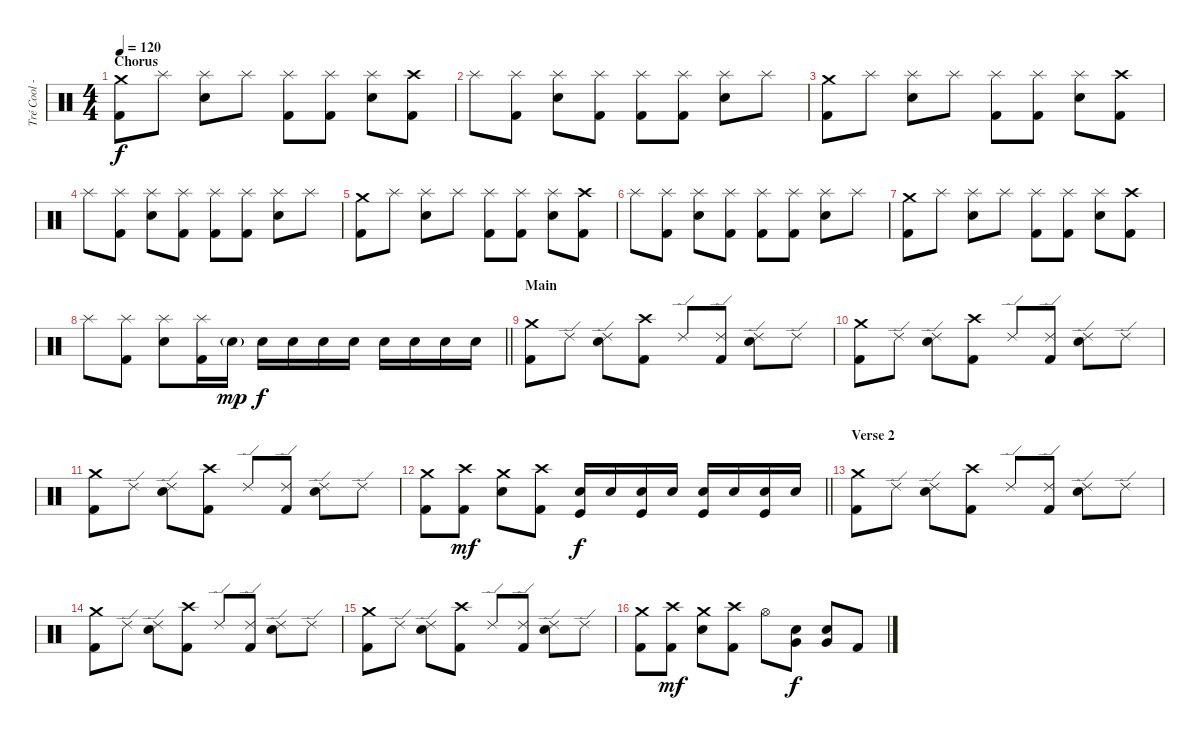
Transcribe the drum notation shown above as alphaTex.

\track ("Tré Cool - Drums" "Tré Cool -") {instrument percussion}
\staff {score}
\articulation defaults
\ts (4 4)
\section ("" "Chorus")
\tempo 120
\clef neutral
\ks c
("Crash medium (hit)" "Kick (hit) 2").8{dy f} "Splash (hit)".8 ("Splash (hit)" "Electric Snare (hit)").8 "Splash (hit)".8 ("Splash (hit)" "Kick (hit) 2").8 ("Splash (hit)" "Kick (hit) 2").8 ("Splash (hit)" "Electric Snare (hit)").8 ("Crash high (hit)" "Kick (hit) 2").8 |
"Splash (hit)".8 ("Splash (hit)" "Kick (hit) 2").8 ("Splash (hit)" "Electric Snare (hit)").8 ("Splash (hit)" "Kick (hit) 2").8 ("Splash (hit)" "Kick (hit) 2").8 ("Splash (hit)" "Kick (hit) 2").8 ("Splash (hit)" "Electric Snare (hit)").8 "Splash (hit)".8 |
("Crash medium (hit)" "Kick (hit) 2").8 "Splash (hit)".8 ("Splash (hit)" "Electric Snare (hit)").8 "Splash (hit)".8 ("Splash (hit)" "Kick (hit) 2").8 ("Splash (hit)" "Kick (hit) 2").8 ("Splash (hit)" "Electric Snare (hit)").8 ("Crash high (hit)" "Kick (hit) 2").8 |
"Splash (hit)".8 ("Splash (hit)" "Kick (hit) 2").8 ("Splash (hit)" "Electric Snare (hit)").8 ("Splash (hit)" "Kick (hit) 2").8 ("Splash (hit)" "Kick (hit) 2").8 ("Splash (hit)" "Kick (hit) 2").8 ("Splash (hit)" "Electric Snare (hit)").8 "Splash (hit)".8 |
("Crash medium (hit)" "Kick (hit) 2").8 "Splash (hit)".8 ("Splash (hit)" "Electric Snare (hit)").8 "Splash (hit)".8 ("Splash (hit)" "Kick (hit) 2").8 ("Splash (hit)" "Kick (hit) 2").8 ("Splash (hit)" "Electric Snare (hit)").8 ("Crash high (hit)" "Kick (hit) 2").8 |
"Splash (hit)".8 ("Splash (hit)" "Kick (hit) 2").8 ("Splash (hit)" "Electric Snare (hit)").8 ("Splash (hit)" "Kick (hit) 2").8 ("Splash (hit)" "Kick (hit) 2").8 ("Splash (hit)" "Kick (hit) 2").8 ("Splash (hit)" "Electric Snare (hit)").8 "Splash (hit)".8 |
("Crash medium (hit)" "Kick (hit) 2").8 "Splash (hit)".8 ("Splash (hit)" "Electric Snare (hit)").8 "Splash (hit)".8 ("Splash (hit)" "Kick (hit) 2").8 ("Splash (hit)" "Kick (hit) 2").8 ("Splash (hit)" "Electric Snare (hit)").8 ("Crash high (hit)" "Kick (hit) 2").8 |
\barLineRight lightlight "Splash (hit)".8
("Splash (hit)" "Kick (hit) 2").8 ("Splash (hit)" "Electric Snare (hit)").8 ("Splash (hit)" "Kick (hit) 2").16 "Electric Snare (hit)"{g}.16{dy mp} "Electric Snare (hit)".16{dy f} "Electric Snare (hit)".16 "Electric Snare (hit)".16 "Electric Snare (hit)".16 "Electric Snare (hit)".16 "Electric Snare (hit)".16 "Electric Snare (hit)".16 "Electric Snare (hit)".16 |
\section ("" "Main")
("Crash medium (hit)" "Kick (hit) 2").8 "Ride (edge) 2".8 ("Ride (edge) 2" "Electric Snare (hit)").8 ("Crash high (hit)" "Kick (hit) 2").8 "Ride (edge) 2".8 ("Ride (edge) 2" "Kick (hit) 2").8 ("Ride (edge) 2" "Electric Snare (hit)").8 "Ride (edge) 2".8 |
("Crash medium (hit)" "Kick (hit) 2").8 "Ride (edge) 2".8 ("Ride (edge) 2" "Electric Snare (hit)").8 ("Crash high (hit)" "Kick (hit) 2").8 "Ride (edge) 2".8 ("Ride (edge) 2" "Kick (hit) 2").8 ("Ride (edge) 2" "Electric Snare (hit)").8 "Ride (edge) 2".8 |
("Crash medium (hit)" "Kick (hit) 2").8 "Ride (edge) 2".8 ("Ride (edge) 2" "Electric Snare (hit)").8 ("Crash high (hit)" "Kick (hit) 2").8 "Ride (edge) 2".8 ("Ride (edge) 2" "Kick (hit) 2").8 ("Ride (edge) 2" "Electric Snare (hit)").8 "Ride (edge) 2".8 |
\barLineRight lightlight
("Crash medium (hit)" "Kick (hit) 2").8 ("Crash high (hit)" "Kick (hit) 2").8{dy mf} ("Crash medium (hit)" "Electric Snare (hit)").8 ("Crash high (hit)" "Kick (hit) 2").8 ("Electric Snare (hit)" "Kick (hit)").16{dy f} "Electric Snare (hit)".16 ("Electric Snare (hit)" "Kick (hit)").16 "Electric Snare (hit)".16 ("Electric Snare (hit)" "Kick (hit)").16 "Electric Snare (hit)".16 ("Electric Snare (hit)" "Kick (hit)").16 "Electric Snare (hit)".16 |
\section ("" "Verse 2")
("Crash medium (hit)" "Kick (hit) 2").8 "Ride (edge) 2".8 ("Ride (edge) 2" "Electric Snare (hit)").8 ("Crash high (hit)" "Kick (hit) 2").8 "Ride (edge) 2".8 ("Ride (edge) 2" "Kick (hit) 2").8 ("Ride (edge) 2" "Electric Snare (hit)").8 "Ride (edge) 2".8 |
("Crash medium (hit)" "Kick (hit) 2").8 "Ride (edge) 2".8 ("Ride (edge) 2" "Electric Snare (hit)").8 ("Crash high (hit)" "Kick (hit) 2").8 "Ride (edge) 2".8 ("Ride (edge) 2" "Kick (hit) 2").8 ("Ride (edge) 2" "Electric Snare (hit)").8 "Ride (edge) 2".8 |
("Crash medium (hit)" "Kick (hit) 2").8 "Ride (edge) 2".8 ("Ride (edge) 2" "Electric Snare (hit)").8 ("Crash high (hit)" "Kick (hit) 2").8 "Ride (edge) 2".8 ("Ride (edge) 2" "Kick (hit) 2").8 ("Ride (edge) 2" "Electric Snare (hit)").8 "Ride (edge) 2".8 |
("Crash medium (hit)" "Kick (hit) 2").8 ("Crash high (hit)" "Kick (hit) 2").8{dy mf} ("Crash medium (hit)" "Electric Snare (hit)").8 ("Crash high (hit)" "Kick (hit) 2").8 "Hi-Hat (open)".8 ("Electric Snare (hit)" "Very Low Tom (hit)").8{dy f} ("Electric Snare (hit)" "Very Low Tom (hit)").8 "Kick (hit) 2".8
